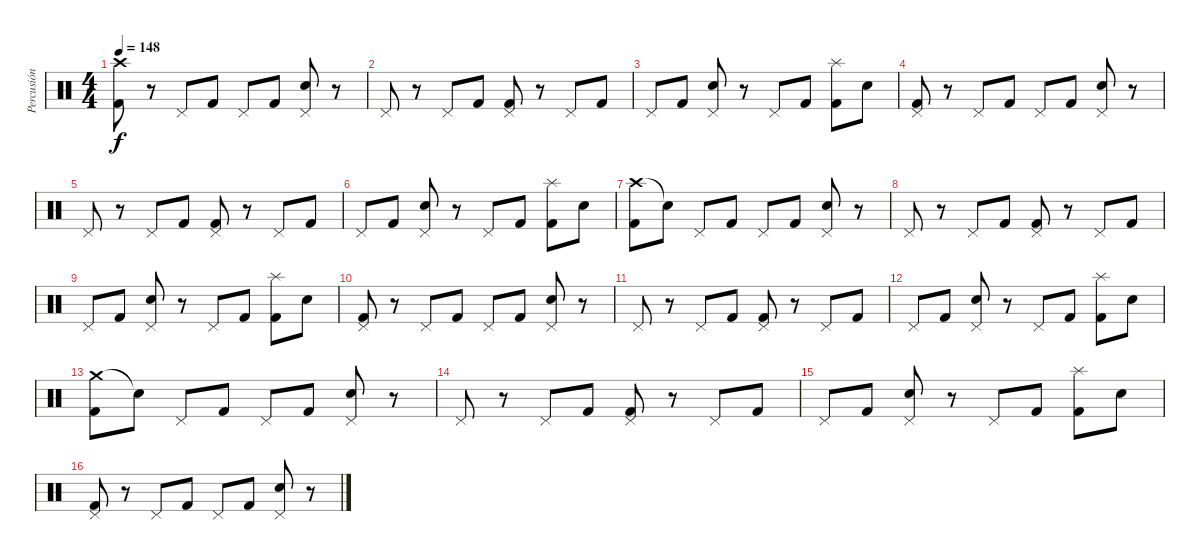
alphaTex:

\track ("Percusión" "Percusión") {instrument percussion}
\staff {score}
\articulation defaults
\ts (4 4)
\tempo 148
\clef neutral
\ks c
("Crash high (hit)" "Kick (hit) 2").8{dy f} r.8 "Pedal Hi-Hat (hit)".8 "Kick (hit) 2".8 "Pedal Hi-Hat (hit)".8 "Kick (hit) 2".8 ("Pedal Hi-Hat (hit)" "Snare (hit) 2").8 r.8 |
"Pedal Hi-Hat (hit)".8 r.8 "Pedal Hi-Hat (hit)".8 "Kick (hit) 2".8 ("Pedal Hi-Hat (hit)" "Kick (hit) 2").8 r.8 "Pedal Hi-Hat (hit)".8 "Kick (hit) 2".8 |
"Pedal Hi-Hat (hit)".8 "Kick (hit) 2".8 ("Pedal Hi-Hat (hit)" "Snare (hit) 2").8 r.8 "Pedal Hi-Hat (hit)".8 "Kick (hit) 2".8 ("Splash (hit)" "Kick (hit) 2").8 "Snare (hit) 2".8 |
("Pedal Hi-Hat (hit)" "Kick (hit) 2").8 r.8 "Pedal Hi-Hat (hit)".8 "Kick (hit) 2".8 "Pedal Hi-Hat (hit)".8 "Kick (hit) 2".8 ("Pedal Hi-Hat (hit)" "Snare (hit) 2").8 r.8 |
"Pedal Hi-Hat (hit)".8 r.8 "Pedal Hi-Hat (hit)".8 "Kick (hit) 2".8 ("Pedal Hi-Hat (hit)" "Kick (hit) 2").8 r.8 "Pedal Hi-Hat (hit)".8 "Kick (hit) 2".8 |
"Pedal Hi-Hat (hit)".8 "Kick (hit) 2".8 ("Pedal Hi-Hat (hit)" "Snare (hit) 2").8 r.8 "Pedal Hi-Hat (hit)".8 "Kick (hit) 2".8 ("Splash (hit)" "Kick (hit) 2").8 "Snare (hit) 2".8 |
("Crash high (hit)" "Kick (hit) 2").8 "Snare (hit)"{t}.8 "Pedal Hi-Hat (hit)".8 "Kick (hit) 2".8 "Pedal Hi-Hat (hit)".8 "Kick (hit) 2".8 ("Pedal Hi-Hat (hit)" "Snare (hit) 2").8 r.8 |
"Pedal Hi-Hat (hit)".8 r.8 "Pedal Hi-Hat (hit)".8 "Kick (hit) 2".8 ("Pedal Hi-Hat (hit)" "Kick (hit) 2").8 r.8 "Pedal Hi-Hat (hit)".8 "Kick (hit) 2".8 |
"Pedal Hi-Hat (hit)".8 "Kick (hit) 2".8 ("Pedal Hi-Hat (hit)" "Snare (hit) 2").8 r.8 "Pedal Hi-Hat (hit)".8 "Kick (hit) 2".8 ("Splash (hit)" "Kick (hit) 2").8 "Snare (hit) 2".8 |
("Pedal Hi-Hat (hit)" "Kick (hit) 2").8 r.8 "Pedal Hi-Hat (hit)".8 "Kick (hit) 2".8 "Pedal Hi-Hat (hit)".8 "Kick (hit) 2".8 ("Pedal Hi-Hat (hit)" "Snare (hit) 2").8 r.8 |
"Pedal Hi-Hat (hit)".8 r.8 "Pedal Hi-Hat (hit)".8 "Kick (hit) 2".8 ("Pedal Hi-Hat (hit)" "Kick (hit) 2").8 r.8 "Pedal Hi-Hat (hit)".8 "Kick (hit) 2".8 |
"Pedal Hi-Hat (hit)".8 "Kick (hit) 2".8 ("Pedal Hi-Hat (hit)" "Snare (hit) 2").8 r.8 "Pedal Hi-Hat (hit)".8 "Kick (hit) 2".8 ("Splash (hit)" "Kick (hit) 2").8 "Snare (hit) 2".8 |
("Crash medium (hit)" "Kick (hit) 2").8 "Snare (hit)"{t}.8 "Pedal Hi-Hat (hit)".8 "Kick (hit) 2".8 "Pedal Hi-Hat (hit)".8 "Kick (hit) 2".8 ("Pedal Hi-Hat (hit)" "Snare (hit) 2").8 r.8 |
"Pedal Hi-Hat (hit)".8 r.8 "Pedal Hi-Hat (hit)".8 "Kick (hit) 2".8 ("Pedal Hi-Hat (hit)" "Kick (hit) 2").8 r.8 "Pedal Hi-Hat (hit)".8 "Kick (hit) 2".8 |
"Pedal Hi-Hat (hit)".8 "Kick (hit) 2".8 ("Pedal Hi-Hat (hit)" "Snare (hit) 2").8 r.8 "Pedal Hi-Hat (hit)".8 "Kick (hit) 2".8 ("Splash (hit)" "Kick (hit) 2").8 "Snare (hit) 2".8 |
("Pedal Hi-Hat (hit)" "Kick (hit) 2").8 r.8 "Pedal Hi-Hat (hit)".8 "Kick (hit) 2".8 "Pedal Hi-Hat (hit)".8 "Kick (hit) 2".8 ("Pedal Hi-Hat (hit)" "Snare (hit) 2").8 r.8
